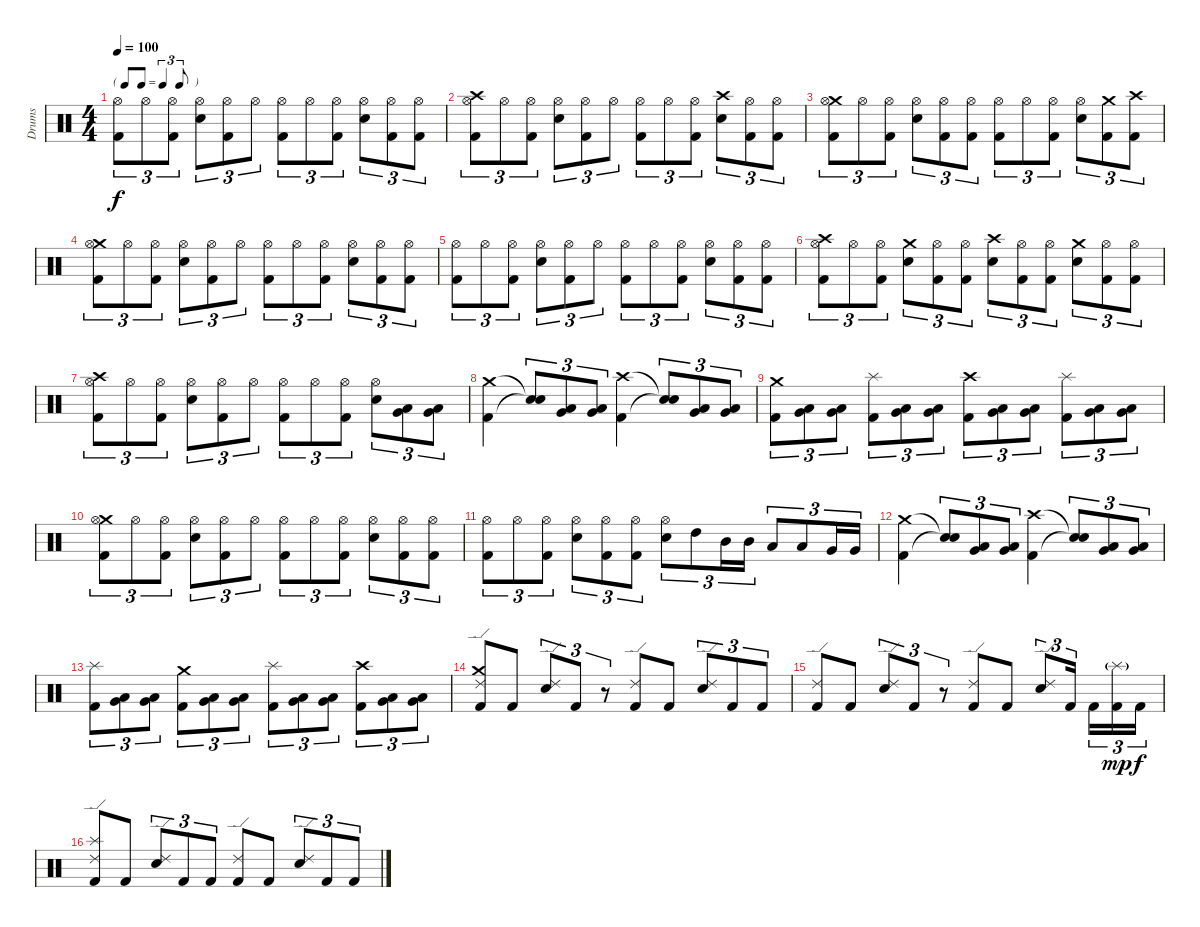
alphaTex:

\track ("Drums" "Drums") {instrument percussion}
\staff {score}
\articulation defaults
\ts (4 4)
\tf triplet8th
\tempo 100
\clef neutral
\ks c
("Hi-Hat (open)" "Kick (hit) 2").8{tu (3 2) dy f} "Hi-Hat (open)".8{tu (3 2)} ("Hi-Hat (open)" "Kick (hit) 2").8{tu (3 2)} ("Hi-Hat (open)" "Snare (hit) 2").8{tu (3 2)} ("Hi-Hat (open)" "Kick (hit) 2").8{tu (3 2)} "Hi-Hat (open)".8{tu (3 2)} ("Hi-Hat (open)" "Kick (hit) 2").8{tu (3 2)} "Hi-Hat (open)".8{tu (3 2)} ("Hi-Hat (open)" "Kick (hit) 2").8{tu (3 2)} ("Hi-Hat (open)" "Snare (hit) 2").8{tu (3 2)} ("Hi-Hat (open)" "Kick (hit) 2").8{tu (3 2)} ("Hi-Hat (open)" "Kick (hit) 2").8{tu (3 2)} |
("Crash high (hit)" "Hi-Hat (open)" "Kick (hit) 2").8{tu (3 2)} "Hi-Hat (open)".8{tu (3 2)} ("Hi-Hat (open)" "Kick (hit) 2").8{tu (3 2)} ("Hi-Hat (open)" "Snare (hit) 2").8{tu (3 2)} ("Hi-Hat (open)" "Kick (hit) 2").8{tu (3 2)} "Hi-Hat (open)".8{tu (3 2)} ("Hi-Hat (open)" "Kick (hit) 2").8{tu (3 2)} "Hi-Hat (open)".8{tu (3 2)} ("Hi-Hat (open)" "Kick (hit) 2").8{tu (3 2)} ("Crash high (hit)" "Snare (hit) 2").8{tu (3 2)} ("Hi-Hat (open)" "Kick (hit) 2").8{tu (3 2)} ("Hi-Hat (open)" "Kick (hit) 2").8{tu (3 2)} |
("Crash medium (hit)" "Hi-Hat (open)" "Kick (hit) 2").8{tu (3 2)} "Hi-Hat (open)".8{tu (3 2)} ("Hi-Hat (open)" "Kick (hit) 2").8{tu (3 2)} ("Hi-Hat (open)" "Snare (hit) 2").8{tu (3 2)} ("Hi-Hat (open)" "Kick (hit) 2").8{tu (3 2)} ("Hi-Hat (open)" "Kick (hit) 2").8{tu (3 2)} ("Hi-Hat (open)" "Kick (hit) 2").8{tu (3 2)} "Hi-Hat (open)".8{tu (3 2)} ("Hi-Hat (open)" "Kick (hit) 2").8{tu (3 2)} ("Hi-Hat (open)" "Snare (hit) 2").8{tu (3 2)} ("Crash medium (hit)" "Kick (hit) 2").8{tu (3 2)} ("Crash high (hit)" "Kick (hit) 2").8{tu (3 2)} |
("Crash medium (hit)" "Hi-Hat (open)" "Kick (hit) 2").8{tu (3 2)} "Hi-Hat (open)".8{tu (3 2)} ("Hi-Hat (open)" "Kick (hit) 2").8{tu (3 2)} ("Hi-Hat (open)" "Snare (hit) 2").8{tu (3 2)} ("Hi-Hat (open)" "Kick (hit) 2").8{tu (3 2)} "Hi-Hat (open)".8{tu (3 2)} ("Hi-Hat (open)" "Kick (hit) 2").8{tu (3 2)} "Hi-Hat (open)".8{tu (3 2)} ("Hi-Hat (open)" "Kick (hit) 2").8{tu (3 2)} ("Hi-Hat (open)" "Snare (hit) 2").8{tu (3 2)} ("Hi-Hat (open)" "Kick (hit) 2").8{tu (3 2)} ("Hi-Hat (open)" "Kick (hit) 2").8{tu (3 2)} |
("Hi-Hat (open)" "Kick (hit) 2").8{tu (3 2)} "Hi-Hat (open)".8{tu (3 2)} ("Hi-Hat (open)" "Kick (hit) 2").8{tu (3 2)} ("Hi-Hat (open)" "Snare (hit) 2").8{tu (3 2)} ("Hi-Hat (open)" "Kick (hit) 2").8{tu (3 2)} "Hi-Hat (open)".8{tu (3 2)} ("Hi-Hat (open)" "Kick (hit) 2").8{tu (3 2)} "Hi-Hat (open)".8{tu (3 2)} ("Hi-Hat (open)" "Kick (hit) 2").8{tu (3 2)} ("Hi-Hat (open)" "Snare (hit) 2").8{tu (3 2)} ("Hi-Hat (open)" "Kick (hit) 2").8{tu (3 2)} ("Hi-Hat (open)" "Kick (hit) 2").8{tu (3 2)} |
("Crash high (hit)" "Hi-Hat (open)" "Kick (hit) 2").8{tu (3 2)} "Hi-Hat (open)".8{tu (3 2)} ("Hi-Hat (open)" "Kick (hit) 2").8{tu (3 2)} ("Crash medium (hit)" "Snare (hit) 2").8{tu (3 2)} ("Hi-Hat (open)" "Kick (hit) 2").8{tu (3 2)} ("Hi-Hat (open)" "Kick (hit) 2").8{tu (3 2)} ("Crash high (hit)" "Snare (hit) 2").8{tu (3 2)} ("Hi-Hat (open)" "Kick (hit) 2").8{tu (3 2)} ("Hi-Hat (open)" "Kick (hit) 2").8{tu (3 2)} ("Crash medium (hit)" "Snare (hit) 2").8{tu (3 2)} ("Hi-Hat (open)" "Kick (hit) 2").8{tu (3 2)} ("Hi-Hat (open)" "Kick (hit) 2").8{tu (3 2)} |
("Crash high (hit)" "Hi-Hat (open)" "Kick (hit) 2").8{tu (3 2)} "Hi-Hat (open)".8{tu (3 2)} ("Hi-Hat (open)" "Kick (hit) 2").8{tu (3 2)} ("Hi-Hat (open)" "Snare (hit) 2").8{tu (3 2)} ("Hi-Hat (open)" "Kick (hit) 2").8{tu (3 2)} "Hi-Hat (open)".8{tu (3 2)} ("Hi-Hat (open)" "Kick (hit) 2").8{tu (3 2)} "Hi-Hat (open)".8{tu (3 2)} ("Hi-Hat (open)" "Kick (hit) 2").8{tu (3 2)} ("Hi-Hat (open)" "Snare (hit) 2").8{tu (3 2)} ("Low Tom (hit)" "Very Low Tom (hit)").8{tu (3 2)} ("Low Tom (hit)" "Very Low Tom (hit)").8{tu (3 2)} |
("Crash medium (hit)" "Kick (hit) 2").4 ("Snare (hit)"{t} "Snare (hit)"{t}).8{tu (3 2)} ("Low Tom (hit)" "Very Low Tom (hit)").8{tu (3 2)} ("Low Tom (hit)" "Very Low Tom (hit)").8{tu (3 2)} ("Crash high (hit)" "Kick (hit) 2").4 ("Snare (hit)"{t} "Snare (hit)"{t}).8{tu (3 2)} ("Low Tom (hit)" "Very Low Tom (hit)").8{tu (3 2)} ("Low Tom (hit)" "Very Low Tom (hit)").8{tu (3 2)} |
("Crash medium (hit)" "Kick (hit) 2").8{tu (3 2)} ("Low Tom (hit)" "Very Low Tom (hit)").8{tu (3 2)} ("Low Tom (hit)" "Very Low Tom (hit)").8{tu (3 2)} ("Splash (hit)" "Kick (hit) 2").8{tu (3 2)} ("Low Tom (hit)" "Very Low Tom (hit)").8{tu (3 2)} ("Low Tom (hit)" "Very Low Tom (hit)").8{tu (3 2)} ("Crash high (hit)" "Kick (hit) 2").8{tu (3 2)} ("Low Tom (hit)" "Very Low Tom (hit)").8{tu (3 2)} ("Low Tom (hit)" "Very Low Tom (hit)").8{tu (3 2)} ("Splash (hit)" "Kick (hit) 2").8{tu (3 2)} ("Low Tom (hit)" "Very Low Tom (hit)").8{tu (3 2)} ("Low Tom (hit)" "Very Low Tom (hit)").8{tu (3 2)} |
("Crash medium (hit)" "Hi-Hat (open)" "Kick (hit) 2").8{tu (3 2)} "Hi-Hat (open)".8{tu (3 2)} ("Hi-Hat (open)" "Kick (hit) 2").8{tu (3 2)} ("Hi-Hat (open)" "Snare (hit) 2").8{tu (3 2)} ("Hi-Hat (open)" "Kick (hit) 2").8{tu (3 2)} "Hi-Hat (open)".8{tu (3 2)} ("Hi-Hat (open)" "Kick (hit) 2").8{tu (3 2)} "Hi-Hat (open)".8{tu (3 2)} ("Hi-Hat (open)" "Kick (hit) 2").8{tu (3 2)} ("Hi-Hat (open)" "Snare (hit) 2").8{tu (3 2)} ("Hi-Hat (open)" "Kick (hit) 2").8{tu (3 2)} ("Hi-Hat (open)" "Kick (hit) 2").8{tu (3 2)} |
("Hi-Hat (open)" "Kick (hit) 2").8{tu (3 2)} "Hi-Hat (open)".8{tu (3 2)} ("Hi-Hat (open)" "Kick (hit) 2").8{tu (3 2)} ("Hi-Hat (open)" "Snare (hit) 2").8{tu (3 2)} ("Hi-Hat (open)" "Kick (hit) 2").8{tu (3 2)} ("Hi-Hat (open)" "Kick (hit) 2").8{tu (3 2)} ("Hi-Hat (open)" "Snare (hit) 2").8{tu (3 2)} "High Tom (hit)".8{tu (3 2)} "Mid Tom (hit)".16{tu (3 2)} "Mid Tom (hit)".16{tu (3 2)} "Low Tom (hit)".8{tu (3 2)} "Low Tom (hit)".8{tu (3 2)} "Very Low Tom (hit)".16{tu (3 2)} "Very Low Tom (hit)".16{tu (3 2)} |
("Crash medium (hit)" "Kick (hit) 2").4 ("Snare (hit)"{t} "Snare (hit)"{t}).8{tu (3 2)} ("Low Tom (hit)" "Very Low Tom (hit)").8{tu (3 2)} ("Low Tom (hit)" "Very Low Tom (hit)").8{tu (3 2)} ("Crash high (hit)" "Kick (hit) 2").4 ("Snare (hit)"{t} "Snare (hit)"{t}).8{tu (3 2)} ("Low Tom (hit)" "Very Low Tom (hit)").8{tu (3 2)} ("Low Tom (hit)" "Very Low Tom (hit)").8{tu (3 2)} |
("Splash (hit)" "Kick (hit) 2").8{tu (3 2)} ("Low Tom (hit)" "Very Low Tom (hit)").8{tu (3 2)} ("Low Tom (hit)" "Very Low Tom (hit)").8{tu (3 2)} ("Crash medium (hit)" "Kick (hit) 2").8{tu (3 2)} ("Low Tom (hit)" "Very Low Tom (hit)").8{tu (3 2)} ("Low Tom (hit)" "Very Low Tom (hit)").8{tu (3 2)} ("Splash (hit)" "Kick (hit) 2").8{tu (3 2)} ("Low Tom (hit)" "Very Low Tom (hit)").8{tu (3 2)} ("Low Tom (hit)" "Very Low Tom (hit)").8{tu (3 2)} ("Crash high (hit)" "Kick (hit) 2").8{tu (3 2)} ("Low Tom (hit)" "Very Low Tom (hit)").8{tu (3 2)} ("Low Tom (hit)" "Very Low Tom (hit)").8{tu (3 2)} |
("Crash medium (hit)" "Ride (edge) 2" "Kick (hit) 2").8 "Kick (hit) 2".8 ("Ride (edge) 2" "Snare (hit) 2").8{tu (3 2)} "Kick (hit) 2".8{tu (3 2)} r.8{tu (3 2)} ("Ride (edge) 2" "Kick (hit) 2").8 "Kick (hit) 2".8 ("Ride (edge) 2" "Snare (hit) 2").8{tu (3 2)} "Kick (hit) 2".8{tu (3 2)} "Kick (hit) 2".8{tu (3 2)} |
("Ride (edge) 2" "Kick (hit) 2").8 "Kick (hit) 2".8 ("Ride (edge) 2" "Snare (hit) 2").8{tu (3 2)} "Kick (hit) 2".8{tu (3 2)} r.8{tu (3 2)} ("Ride (edge) 2" "Kick (hit) 2").8 "Kick (hit) 2".8 ("Ride (edge) 2" "Snare (hit) 2").8{tu (3 2)} "Kick (hit) 2".16{tu (3 2) beam splitsecondary} "Kick (hit) 2".16{tu (3 2)} ("Splash (hit)"{g} "Kick (hit) 2").16{tu (3 2) dy mp} "Kick (hit) 2".16{tu (3 2) dy f} |
("Splash (hit)" "Ride (edge) 2" "Kick (hit) 2").8 "Kick (hit) 2".8 ("Ride (edge) 2" "Snare (hit) 2").8{tu (3 2)} "Kick (hit) 2".8{tu (3 2)} "Kick (hit) 2".8{tu (3 2)} ("Ride (edge) 2" "Kick (hit) 2").8 "Kick (hit) 2".8 ("Ride (edge) 2" "Snare (hit) 2").8{tu (3 2)} "Kick (hit) 2".8{tu (3 2)} "Kick (hit) 2".8{tu (3 2)}
